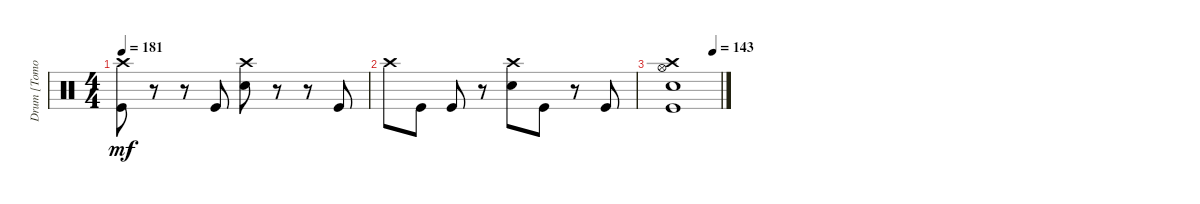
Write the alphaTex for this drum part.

\track ("Drum [Tomoya]" "Drum [Tomo") {instrument percussion}
\staff {score}
\articulation defaults
\ts (4 4)
\tempo 181
\clef neutral
\ks c
("Kick (hit)" "Crash high (hit)").8{dy mf} r.8 r.8 "Kick (hit)".8 ("Snare (hit) 2" "Crash high (hit)").8 r.8 r.8 "Kick (hit)".8 |
"Crash high (hit)".8 "Kick (hit)".8 "Kick (hit)".8 r.8 ("Snare (hit) 2" "Crash high (hit)").8 "Kick (hit)".8 r.8 "Kick (hit)".8 |
\tempo (143 0.875)
("Crash high (hit)" "Snare (hit) 2" "Kick (hit)" "Hi-Hat (open)").1
